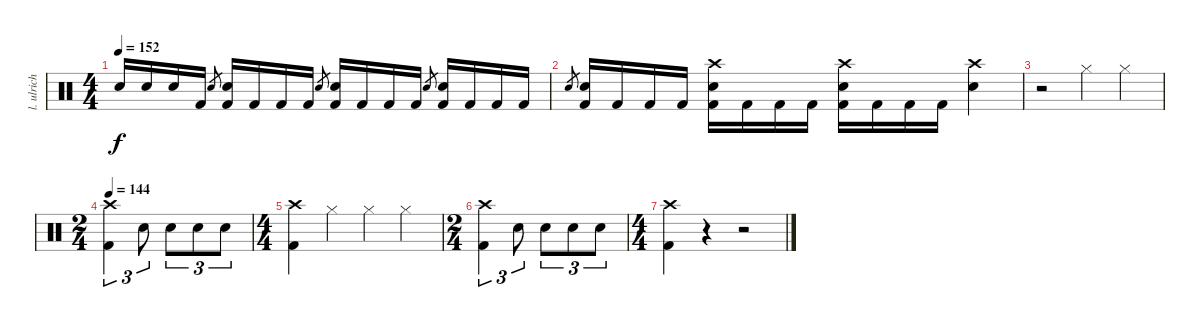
\track ("l. ulrich - drums" "l. ulrich ") {instrument percussion}
\staff {score}
\articulation defaults
\ts (4 4)
\tempo 152
\clef neutral
\ks c "Snare (hit) 2".16{dy f} "Snare (hit) 2".16 "Snare (hit) 2".16 "Kick (hit) 2".16 "Snare (hit) 2".8{gr}
("Snare (hit) 2" "Kick (hit) 2").16 "Kick (hit) 2".16 "Kick (hit) 2".16 "Kick (hit) 2".16 "Snare (hit) 2".8{gr} ("Snare (hit) 2" "Kick (hit) 2").16 "Kick (hit) 2".16 "Kick (hit) 2".16 "Kick (hit) 2".16 "Snare (hit) 2".8{gr} ("Snare (hit) 2" "Kick (hit) 2").16 "Kick (hit) 2".16 "Kick (hit) 2".16 "Kick (hit) 2".16 |
"Snare (hit) 2".8{gr} ("Snare (hit) 2" "Kick (hit) 2").16 "Kick (hit) 2".16 "Kick (hit) 2".16 "Kick (hit) 2".16 ("Crash high (hit)" "Snare (hit) 2" "Kick (hit) 2").16 "Kick (hit) 2".16 "Kick (hit) 2".16 "Kick (hit) 2".16 ("Crash high (hit)" "Snare (hit) 2" "Kick (hit) 2").16 "Kick (hit) 2".16 "Kick (hit) 2".16 "Kick (hit) 2".16 ("Crash high (hit)" "Snare (hit) 2").4 |
r.2 "Hi-Hat (closed)".4 "Hi-Hat (closed)".4 |
\ts (2 4)
\tempo 144
("Crash high (hit)" "Kick (hit) 2").4{tu (3 2)} "Snare (hit) 2".8{tu (3 2)} "Snare (hit) 2".8{tu (3 2)} "Snare (hit) 2".8{tu (3 2)} "Snare (hit) 2".8{tu (3 2)} |
\ts (4 4)
("Crash high (hit)" "Kick (hit) 2").4 "Hi-Hat (closed)".4 "Hi-Hat (closed)".4 "Hi-Hat (closed)".4 |
\ts (2 4)
("Crash high (hit)" "Kick (hit) 2").4{tu (3 2)} "Snare (hit) 2".8{tu (3 2)} "Snare (hit) 2".8{tu (3 2)} "Snare (hit) 2".8{tu (3 2)} "Snare (hit) 2".8{tu (3 2)} |
\ts (4 4)
("Crash high (hit)" "Kick (hit) 2").4 r.4 r.2
